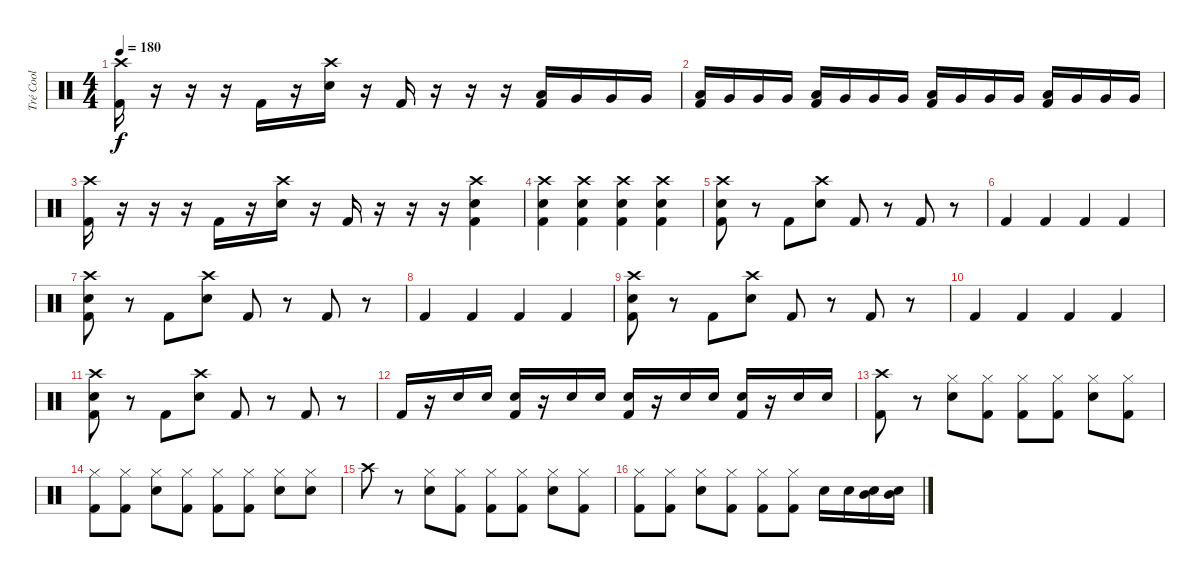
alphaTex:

\track ("Tré Cool" "Tré Cool") {instrument percussion}
\staff {score}
\articulation defaults
\ts (4 4)
\tempo 180
\clef neutral
\ks c
("Crash high (hit)" "Kick (hit) 2").16{dy f} r.16 r.16 r.16 "Kick (hit) 2".16 r.16 ("Crash high (hit)" "Snare (hit) 2").16 r.16 "Kick (hit) 2".16 r.16 r.16 r.16 ("Low Tom (hit)" "Kick (hit) 2").16 "Very Low Tom (hit)".16 "Very Low Tom (hit)".16 "Very Low Tom (hit)".16 |
("Low Tom (hit)" "Kick (hit) 2").16 "Very Low Tom (hit)".16 "Very Low Tom (hit)".16 "Very Low Tom (hit)".16 ("Low Tom (hit)" "Kick (hit) 2").16 "Very Low Tom (hit)".16 "Very Low Tom (hit)".16 "Very Low Tom (hit)".16 ("Low Tom (hit)" "Kick (hit) 2").16 "Very Low Tom (hit)".16 "Very Low Tom (hit)".16 "Very Low Tom (hit)".16 ("Low Tom (hit)" "Kick (hit) 2").16 "Very Low Tom (hit)".16 "Very Low Tom (hit)".16 "Very Low Tom (hit)".16 |
("Crash high (hit)" "Kick (hit) 2").16 r.16 r.16 r.16 "Kick (hit) 2".16 r.16 ("Crash high (hit)" "Snare (hit) 2").16 r.16 "Kick (hit) 2".16 r.16 r.16 r.16 ("Crash high (hit)" "Snare (hit) 2" "Kick (hit) 2").4 |
("Crash high (hit)" "Snare (hit) 2" "Kick (hit) 2").4 ("Crash high (hit)" "Snare (hit) 2" "Kick (hit) 2").4 ("Crash high (hit)" "Snare (hit) 2" "Kick (hit) 2").4 ("Crash high (hit)" "Snare (hit) 2" "Kick (hit) 2").4 |
("Crash high (hit)" "Snare (hit) 2" "Kick (hit) 2").8 r.8 "Kick (hit) 2".8 ("Crash high (hit)" "Snare (hit) 2").8 "Kick (hit) 2".8 r.8 "Kick (hit) 2".8 r.8 |
"Kick (hit) 2".4 "Kick (hit) 2".4 "Kick (hit) 2".4 "Kick (hit) 2".4 |
("Crash high (hit)" "Snare (hit) 2" "Kick (hit) 2").8 r.8 "Kick (hit) 2".8 ("Crash high (hit)" "Snare (hit) 2").8 "Kick (hit) 2".8 r.8 "Kick (hit) 2".8 r.8 |
"Kick (hit) 2".4 "Kick (hit) 2".4 "Kick (hit) 2".4 "Kick (hit) 2".4 |
("Crash high (hit)" "Snare (hit) 2" "Kick (hit) 2").8 r.8 "Kick (hit) 2".8 ("Crash high (hit)" "Snare (hit) 2").8 "Kick (hit) 2".8 r.8 "Kick (hit) 2".8 r.8 |
"Kick (hit) 2".4 "Kick (hit) 2".4 "Kick (hit) 2".4 "Kick (hit) 2".4 |
("Crash high (hit)" "Snare (hit) 2" "Kick (hit) 2").8 r.8 "Kick (hit) 2".8 ("Crash high (hit)" "Snare (hit) 2").8 "Kick (hit) 2".8 r.8 "Kick (hit) 2".8 r.8 |
"Kick (hit) 2".16 r.16 "Snare (hit) 2".16 "Snare (hit) 2".16 ("Snare (hit) 2" "Kick (hit) 2").16 r.16 "Snare (hit) 2".16 "Snare (hit) 2".16 ("Snare (hit) 2" "Kick (hit) 2").16 r.16 "Snare (hit) 2".16 "Snare (hit) 2".16 ("Snare (hit) 2" "Kick (hit) 2").16 r.16 "Snare (hit) 2".16 "Snare (hit) 2".16 |
("Crash high (hit)" "Kick (hit) 2").8 r.8 ("Hi-Hat (closed)" "Snare (hit) 2").8 ("Hi-Hat (closed)" "Kick (hit) 2").8 ("Hi-Hat (closed)" "Kick (hit) 2").8 ("Hi-Hat (closed)" "Kick (hit) 2").8 ("Hi-Hat (closed)" "Snare (hit) 2").8 ("Hi-Hat (closed)" "Kick (hit) 2").8 |
("Hi-Hat (closed)" "Kick (hit) 2").8 ("Hi-Hat (closed)" "Kick (hit) 2").8 ("Hi-Hat (closed)" "Snare (hit) 2").8 ("Hi-Hat (closed)" "Kick (hit) 2").8 ("Hi-Hat (closed)" "Kick (hit) 2").8 ("Hi-Hat (closed)" "Kick (hit) 2").8 ("Hi-Hat (closed)" "Snare (hit) 2").8 ("Hi-Hat (closed)" "Snare (hit) 2").8 |
"Crash high (hit)".8 r.8 ("Hi-Hat (closed)" "Snare (hit) 2").8 ("Hi-Hat (closed)" "Kick (hit) 2").8 ("Hi-Hat (closed)" "Kick (hit) 2").8 ("Hi-Hat (closed)" "Kick (hit) 2").8 ("Hi-Hat (closed)" "Snare (hit) 2").8 ("Hi-Hat (closed)" "Kick (hit) 2").8 |
("Hi-Hat (closed)" "Kick (hit) 2").8 ("Hi-Hat (closed)" "Kick (hit) 2").8 ("Hi-Hat (closed)" "Snare (hit) 2").8 ("Hi-Hat (closed)" "Kick (hit) 2").8 ("Hi-Hat (closed)" "Kick (hit) 2").8 ("Hi-Hat (closed)" "Kick (hit) 2").8 "Electric Snare (hit)".16 "Electric Snare (hit)".16 ("Mid Tom (hit)" "Electric Snare (hit)").16 ("Mid Tom (hit)" "Electric Snare (hit)").16
